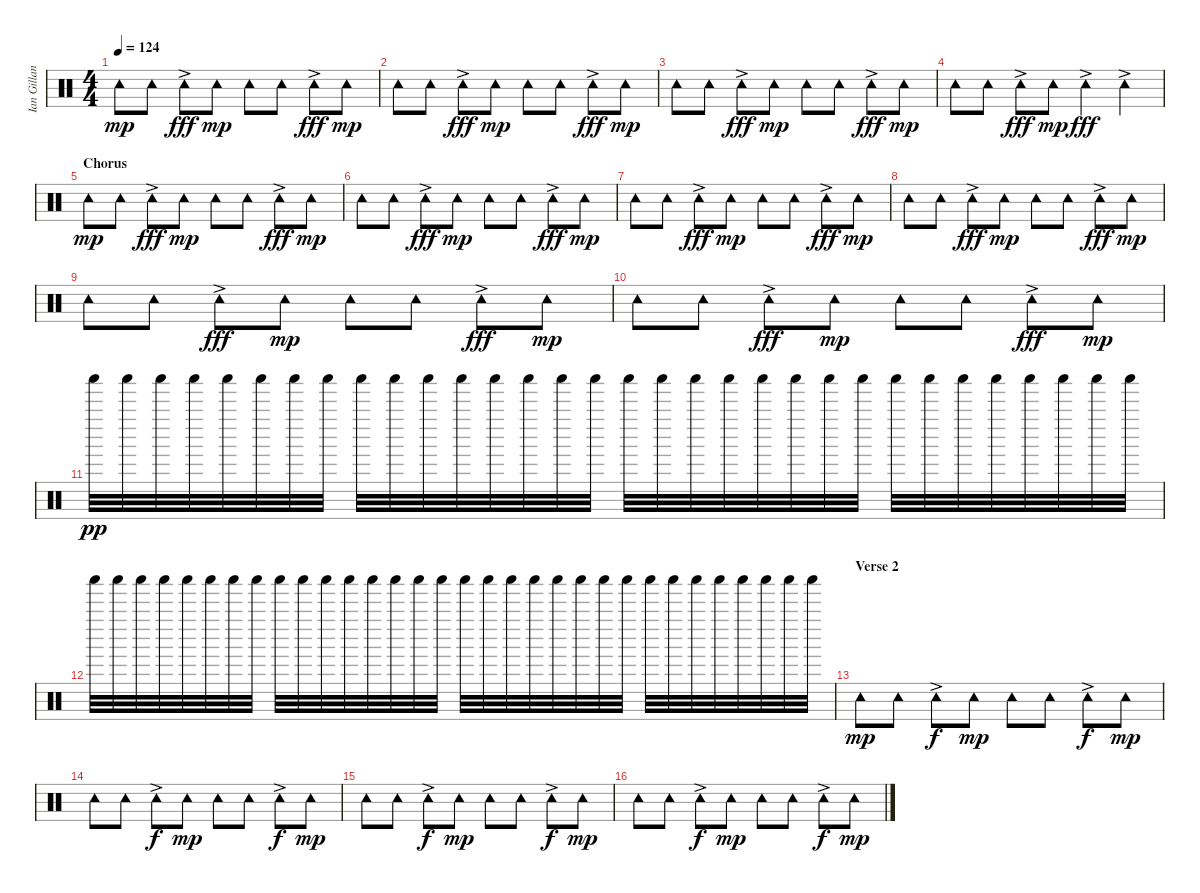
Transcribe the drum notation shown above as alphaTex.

\track ("Ian Gillan (percussions)" "Ian Gillan") {instrument percussion}
\staff {score}
\articulation defaults
\ts (4 4)
\tempo 124
\clef neutral
\ks c "Tambourine (hit)".8{dy mp} "Tambourine (hit)".8 "Tambourine (hit)"{ac}.8{dy fff} "Tambourine (hit)".8{dy mp} "Tambourine (hit)".8 "Tambourine (hit)".8 "Tambourine (hit)"{ac}.8{dy fff} "Tambourine (hit)".8{dy mp}
|
"Tambourine (hit)".8 "Tambourine (hit)".8 "Tambourine (hit)"{ac}.8{dy fff} "Tambourine (hit)".8{dy mp} "Tambourine (hit)".8 "Tambourine (hit)".8 "Tambourine (hit)"{ac}.8{dy fff} "Tambourine (hit)".8{dy mp} |
"Tambourine (hit)".8 "Tambourine (hit)".8 "Tambourine (hit)"{ac}.8{dy fff} "Tambourine (hit)".8{dy mp} "Tambourine (hit)".8 "Tambourine (hit)".8 "Tambourine (hit)"{ac}.8{dy fff} "Tambourine (hit)".8{dy mp} |
"Tambourine (hit)".8 "Tambourine (hit)".8 "Tambourine (hit)"{ac}.8{dy fff} "Tambourine (hit)".8{dy mp} "Tambourine (hit)"{ac}.4{dy fff} "Tambourine (hit)"{ac}.4 |
\section ("" "Chorus")
"Tambourine (hit)".8{dy mp} "Tambourine (hit)".8 "Tambourine (hit)"{ac}.8{dy fff} "Tambourine (hit)".8{dy mp} "Tambourine (hit)".8 "Tambourine (hit)".8 "Tambourine (hit)"{ac}.8{dy fff} "Tambourine (hit)".8{dy mp} |
"Tambourine (hit)".8 "Tambourine (hit)".8 "Tambourine (hit)"{ac}.8{dy fff} "Tambourine (hit)".8{dy mp} "Tambourine (hit)".8 "Tambourine (hit)".8 "Tambourine (hit)"{ac}.8{dy fff} "Tambourine (hit)".8{dy mp} |
"Tambourine (hit)".8 "Tambourine (hit)".8 "Tambourine (hit)"{ac}.8{dy fff} "Tambourine (hit)".8{dy mp} "Tambourine (hit)".8 "Tambourine (hit)".8 "Tambourine (hit)"{ac}.8{dy fff} "Tambourine (hit)".8{dy mp} |
"Tambourine (hit)".8 "Tambourine (hit)".8 "Tambourine (hit)"{ac}.8{dy fff} "Tambourine (hit)".8{dy mp} "Tambourine (hit)".8 "Tambourine (hit)".8 "Tambourine (hit)"{ac}.8{dy fff} "Tambourine (hit)".8{dy mp} |
"Tambourine (hit)".8 "Tambourine (hit)".8 "Tambourine (hit)"{ac}.8{dy fff} "Tambourine (hit)".8{dy mp} "Tambourine (hit)".8 "Tambourine (hit)".8 "Tambourine (hit)"{ac}.8{dy fff} "Tambourine (hit)".8{dy mp} |
"Tambourine (hit)".8 "Tambourine (hit)".8 "Tambourine (hit)"{ac}.8{dy fff} "Tambourine (hit)".8{dy mp} "Tambourine (hit)".8 "Tambourine (hit)".8 "Tambourine (hit)"{ac}.8{dy fff} "Tambourine (hit)".8{dy mp} |
"Shaker (hit)".32{dy pp} "Shaker (hit)".32 "Shaker (hit)".32 "Shaker (hit)".32 "Shaker (hit)".32 "Shaker (hit)".32 "Shaker (hit)".32 "Shaker (hit)".32 "Shaker (hit)".32 "Shaker (hit)".32 "Shaker (hit)".32 "Shaker (hit)".32 "Shaker (hit)".32 "Shaker (hit)".32 "Shaker (hit)".32 "Shaker (hit)".32 "Shaker (hit)".32 "Shaker (hit)".32 "Shaker (hit)".32 "Shaker (hit)".32 "Shaker (hit)".32 "Shaker (hit)".32 "Shaker (hit)".32 "Shaker (hit)".32 "Shaker (hit)".32 "Shaker (hit)".32 "Shaker (hit)".32 "Shaker (hit)".32 "Shaker (hit)".32 "Shaker (hit)".32 "Shaker (hit)".32 "Shaker (hit)".32 |
"Shaker (hit)".32 "Shaker (hit)".32 "Shaker (hit)".32 "Shaker (hit)".32 "Shaker (hit)".32 "Shaker (hit)".32 "Shaker (hit)".32 "Shaker (hit)".32 "Shaker (hit)".32 "Shaker (hit)".32 "Shaker (hit)".32 "Shaker (hit)".32 "Shaker (hit)".32 "Shaker (hit)".32 "Shaker (hit)".32 "Shaker (hit)".32 "Shaker (hit)".32 "Shaker (hit)".32 "Shaker (hit)".32 "Shaker (hit)".32 "Shaker (hit)".32 "Shaker (hit)".32 "Shaker (hit)".32 "Shaker (hit)".32 "Shaker (hit)".32 "Shaker (hit)".32 "Shaker (hit)".32 "Shaker (hit)".32 "Shaker (hit)".32 "Shaker (hit)".32 "Shaker (hit)".32 "Shaker (hit)".32 |
\section ("" "Verse 2")
"Tambourine (hit)".8{dy mp} "Tambourine (hit)".8 "Tambourine (hit)"{ac}.8{dy f} "Tambourine (hit)".8{dy mp} "Tambourine (hit)".8 "Tambourine (hit)".8 "Tambourine (hit)"{ac}.8{dy f} "Tambourine (hit)".8{dy mp} |
"Tambourine (hit)".8 "Tambourine (hit)".8 "Tambourine (hit)"{ac}.8{dy f} "Tambourine (hit)".8{dy mp} "Tambourine (hit)".8 "Tambourine (hit)".8 "Tambourine (hit)"{ac}.8{dy f} "Tambourine (hit)".8{dy mp} |
"Tambourine (hit)".8 "Tambourine (hit)".8 "Tambourine (hit)"{ac}.8{dy f} "Tambourine (hit)".8{dy mp} "Tambourine (hit)".8 "Tambourine (hit)".8 "Tambourine (hit)"{ac}.8{dy f} "Tambourine (hit)".8{dy mp} |
"Tambourine (hit)".8 "Tambourine (hit)".8 "Tambourine (hit)"{ac}.8{dy f} "Tambourine (hit)".8{dy mp} "Tambourine (hit)".8 "Tambourine (hit)".8 "Tambourine (hit)"{ac}.8{dy f} "Tambourine (hit)".8{dy mp}
